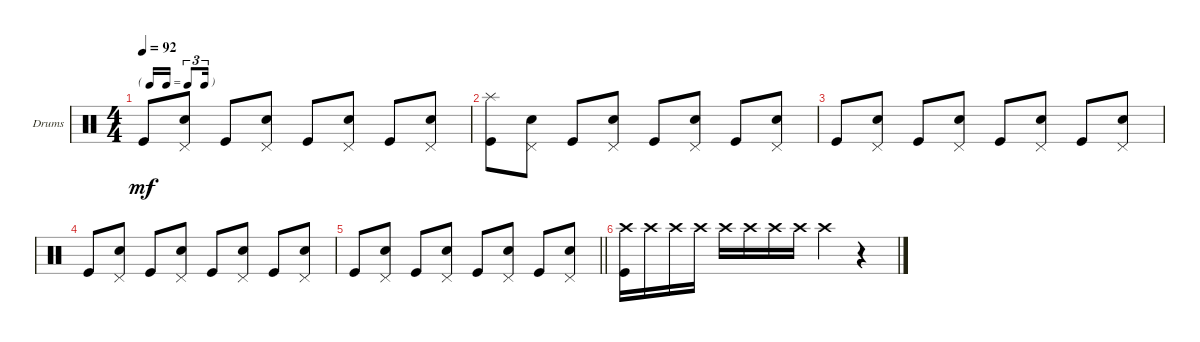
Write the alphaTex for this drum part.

\defaultSystemsLayout 4
\bracketExtendMode nobrackets
\firstSystemTrackNameOrientation horizontal
\otherSystemsTrackNameOrientation horizontal
\track ("Drumkit" "Drums") {instrument percussion}
\staff {score}
\articulation defaults
\ts (4 4)
\tf triplet16th
\tempo 92
\clef neutral
\ks c "Kick (hit)".8{dy mf}
("Snare (hit) 2" "Pedal Hi-Hat (hit)").8 "Kick (hit)".8 ("Snare (hit) 2" "Pedal Hi-Hat (hit)").8 "Kick (hit)".8 ("Snare (hit) 2" "Pedal Hi-Hat (hit)").8 "Kick (hit)".8 ("Snare (hit) 2" "Pedal Hi-Hat (hit)").8 |
("Splash (hit)" "Kick (hit)").8 ("Snare (hit) 2" "Pedal Hi-Hat (hit)").8 "Kick (hit)".8 ("Snare (hit) 2" "Pedal Hi-Hat (hit)").8 "Kick (hit)".8 ("Snare (hit) 2" "Pedal Hi-Hat (hit)").8 "Kick (hit)".8 ("Snare (hit) 2" "Pedal Hi-Hat (hit)").8 |
"Kick (hit)".8 ("Snare (hit) 2" "Pedal Hi-Hat (hit)").8 "Kick (hit)".8 ("Snare (hit) 2" "Pedal Hi-Hat (hit)").8 "Kick (hit)".8 ("Snare (hit) 2" "Pedal Hi-Hat (hit)").8 "Kick (hit)".8 ("Snare (hit) 2" "Pedal Hi-Hat (hit)").8 |
"Kick (hit)".8 ("Snare (hit) 2" "Pedal Hi-Hat (hit)").8 "Kick (hit)".8 ("Snare (hit) 2" "Pedal Hi-Hat (hit)").8 "Kick (hit)".8 ("Snare (hit) 2" "Pedal Hi-Hat (hit)").8 "Kick (hit)".8 ("Snare (hit) 2" "Pedal Hi-Hat (hit)").8 |
\barLineRight lightlight "Kick (hit)".8
("Snare (hit) 2" "Pedal Hi-Hat (hit)").8 "Kick (hit)".8 ("Snare (hit) 2" "Pedal Hi-Hat (hit)").8 "Kick (hit)".8 ("Snare (hit) 2" "Pedal Hi-Hat (hit)").8 "Kick (hit)".8 ("Snare (hit) 2" "Pedal Hi-Hat (hit)").8 |
("Kick (hit)" "Crash high (hit)").16 "Crash high (hit)".16 "Crash high (hit)".16 "Crash high (hit)".16 "Crash high (hit)".16 "Crash high (hit)".16 "Crash high (hit)".16 "Crash high (hit)".16 "Crash high (hit)".4 r.4
